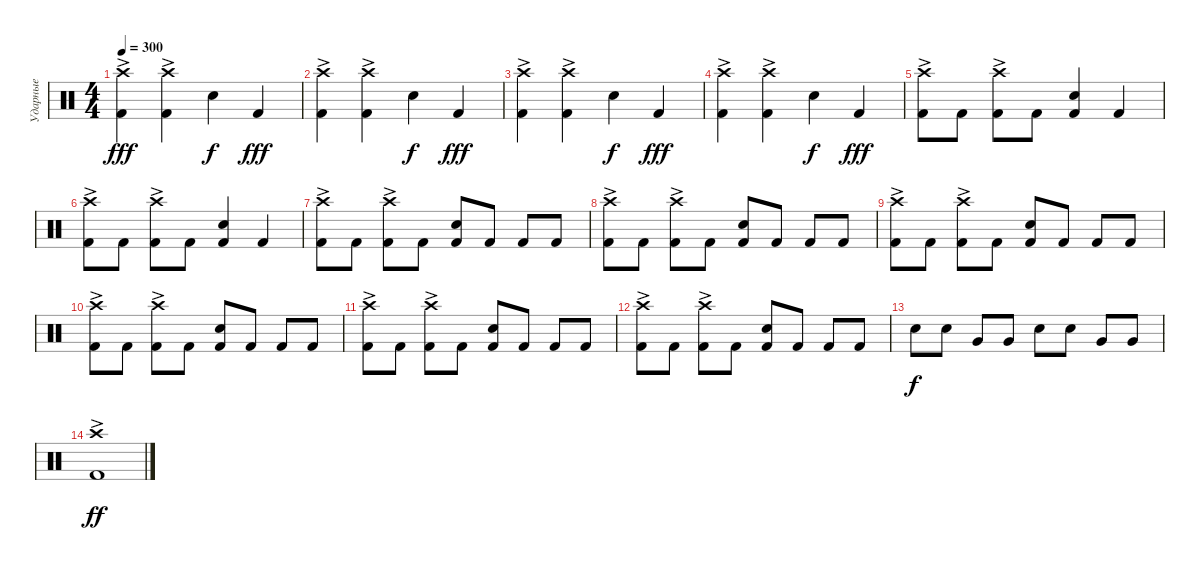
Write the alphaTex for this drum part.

\track ("Ударные" "Ударные") {instrument percussion}
\staff {score}
\articulation defaults
\ts (4 4)
\tempo 300
\clef neutral
\ks c
("Kick (hit) 2" "Crash high (hit)"{ac}).4{dy fff} ("Kick (hit) 2" "Crash high (hit)"{ac}).4 "Snare (hit) 2".4{dy f} "Kick (hit) 2".4{dy fff} |
("Kick (hit) 2" "Crash high (hit)"{ac}).4 ("Kick (hit) 2" "Crash high (hit)"{ac}).4 "Snare (hit) 2".4{dy f} "Kick (hit) 2".4{dy fff} |
("Kick (hit) 2" "Crash high (hit)"{ac}).4 ("Kick (hit) 2" "Crash high (hit)"{ac}).4 "Snare (hit) 2".4{dy f} "Kick (hit) 2".4{dy fff} |
("Kick (hit) 2" "Crash high (hit)"{ac}).4 ("Kick (hit) 2" "Crash high (hit)"{ac}).4 "Snare (hit) 2".4{dy f} "Kick (hit) 2".4{dy fff} |
("Kick (hit) 2" "Crash high (hit)"{ac}).8 "Kick (hit) 2".8 ("Kick (hit) 2" "Crash high (hit)"{ac}).8 "Kick (hit) 2".8 ("Kick (hit) 2" "Snare (hit) 2").4 "Kick (hit) 2".4 |
("Kick (hit) 2" "Crash high (hit)"{ac}).8 "Kick (hit) 2".8 ("Kick (hit) 2" "Crash high (hit)"{ac}).8 "Kick (hit) 2".8 ("Kick (hit) 2" "Snare (hit) 2").4 "Kick (hit) 2".4 |
("Kick (hit) 2" "Crash high (hit)"{ac}).8 "Kick (hit) 2".8 ("Kick (hit) 2" "Crash high (hit)"{ac}).8 "Kick (hit) 2".8 ("Kick (hit) 2" "Snare (hit) 2").8 "Kick (hit) 2".8 "Kick (hit) 2".8 "Kick (hit) 2".8 |
("Kick (hit) 2" "Crash high (hit)"{ac}).8 "Kick (hit) 2".8 ("Kick (hit) 2" "Crash high (hit)"{ac}).8 "Kick (hit) 2".8 ("Kick (hit) 2" "Snare (hit) 2").8 "Kick (hit) 2".8 "Kick (hit) 2".8 "Kick (hit) 2".8 |
("Kick (hit) 2" "Crash high (hit)"{ac}).8 "Kick (hit) 2".8 ("Kick (hit) 2" "Crash high (hit)"{ac}).8 "Kick (hit) 2".8 ("Kick (hit) 2" "Snare (hit) 2").8 "Kick (hit) 2".8 "Kick (hit) 2".8 "Kick (hit) 2".8 |
("Kick (hit) 2" "Crash high (hit)"{ac}).8 "Kick (hit) 2".8 ("Kick (hit) 2" "Crash high (hit)"{ac}).8 "Kick (hit) 2".8 ("Kick (hit) 2" "Snare (hit) 2").8 "Kick (hit) 2".8 "Kick (hit) 2".8 "Kick (hit) 2".8 |
("Kick (hit) 2" "Crash high (hit)"{ac}).8 "Kick (hit) 2".8 ("Kick (hit) 2" "Crash high (hit)"{ac}).8 "Kick (hit) 2".8 ("Kick (hit) 2" "Snare (hit) 2").8 "Kick (hit) 2".8 "Kick (hit) 2".8 "Kick (hit) 2".8 |
("Kick (hit) 2" "Crash high (hit)"{ac}).8 "Kick (hit) 2".8 ("Kick (hit) 2" "Crash high (hit)"{ac}).8 "Kick (hit) 2".8 ("Kick (hit) 2" "Snare (hit) 2").8 "Kick (hit) 2".8 "Kick (hit) 2".8 "Kick (hit) 2".8 |
"Snare (hit) 2".8{dy f} "Snare (hit) 2".8 "Very Low Tom (hit)".8 "Very Low Tom (hit)".8 "Snare (hit) 2".8 "Snare (hit) 2".8 "Very Low Tom (hit)".8 "Very Low Tom (hit)".8 |
("Kick (hit) 2" "Crash high (hit)"{ac}).1{dy ff}
